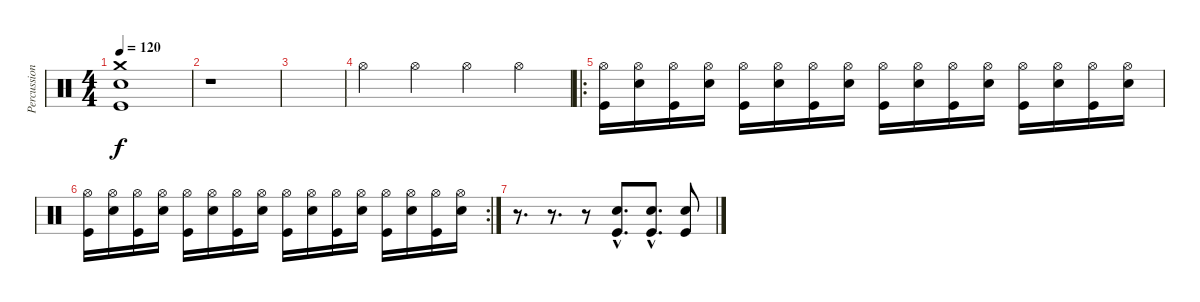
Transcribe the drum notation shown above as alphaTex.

\track ("Percussion" "Percussion") {instrument percussion}
\staff {score}
\articulation defaults
\ts (4 4)
\tempo 120
\clef neutral
\ks c
("Crash medium (hit)" "Snare (hit) 2" "Kick (hit)").1{dy f} |
r.1 |
|
"Hi-Hat (open)".4 "Hi-Hat (open)".4 "Hi-Hat (open)".4 "Hi-Hat (open)".4 |
\ro
("Hi-Hat (open)" "Kick (hit)").16 ("Hi-Hat (open)" "Snare (hit) 2").16 ("Hi-Hat (open)" "Kick (hit)").16 ("Hi-Hat (open)" "Snare (hit) 2").16 ("Hi-Hat (open)" "Kick (hit)").16 ("Hi-Hat (open)" "Snare (hit) 2").16 ("Hi-Hat (open)" "Kick (hit)").16 ("Hi-Hat (open)" "Snare (hit) 2").16 ("Hi-Hat (open)" "Kick (hit)").16 ("Hi-Hat (open)" "Snare (hit) 2").16 ("Hi-Hat (open)" "Kick (hit)").16 ("Hi-Hat (open)" "Snare (hit) 2").16 ("Hi-Hat (open)" "Kick (hit)").16 ("Hi-Hat (open)" "Snare (hit) 2").16 ("Hi-Hat (open)" "Kick (hit)").16 ("Hi-Hat (open)" "Snare (hit) 2").16 |
\rc 2
("Hi-Hat (open)" "Kick (hit)").16 ("Hi-Hat (open)" "Snare (hit) 2").16 ("Hi-Hat (open)" "Kick (hit)").16 ("Hi-Hat (open)" "Snare (hit) 2").16 ("Hi-Hat (open)" "Kick (hit)").16 ("Hi-Hat (open)" "Snare (hit) 2").16 ("Hi-Hat (open)" "Kick (hit)").16 ("Hi-Hat (open)" "Snare (hit) 2").16 ("Hi-Hat (open)" "Kick (hit)").16 ("Hi-Hat (open)" "Snare (hit) 2").16 ("Hi-Hat (open)" "Kick (hit)").16 ("Hi-Hat (open)" "Snare (hit) 2").16 ("Hi-Hat (open)" "Kick (hit)").16 ("Hi-Hat (open)" "Snare (hit) 2").16 ("Hi-Hat (open)" "Kick (hit)").16 ("Hi-Hat (open)" "Snare (hit) 2").16 |
r.8{d} r.8{d} r.8 ("Snare (hit) 2"{hac} "Kick (hit)"{hac}).8{d} ("Snare (hit) 2"{hac} "Kick (hit)"{hac}).8{d} ("Snare (hit) 2" "Kick (hit)").8
